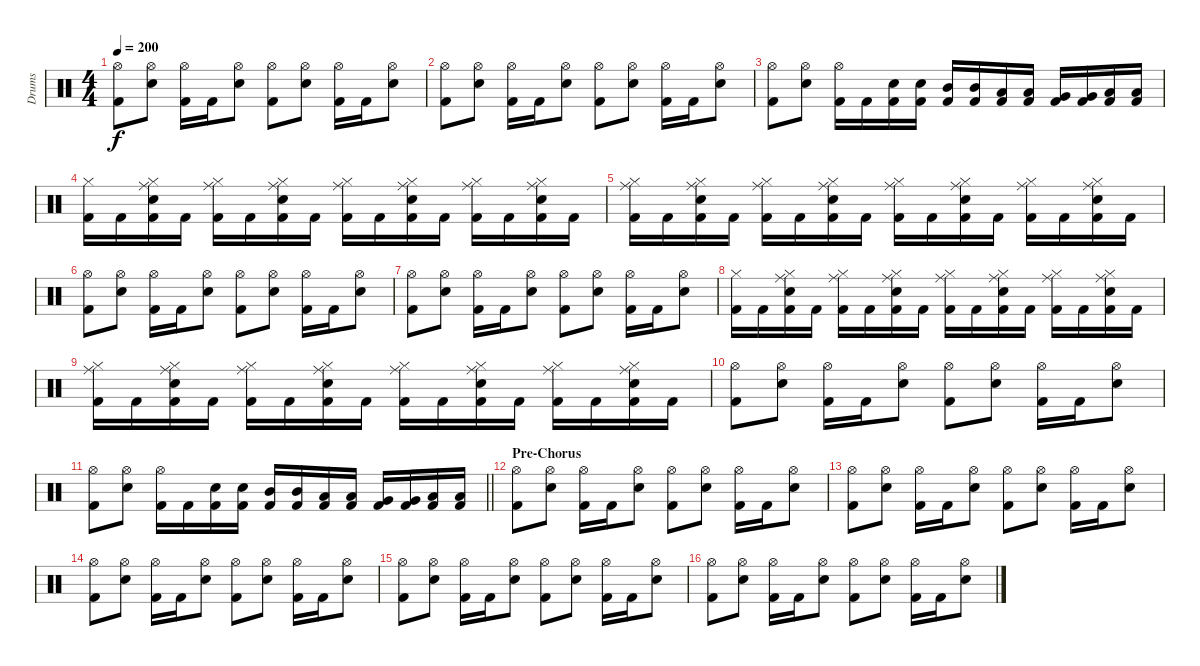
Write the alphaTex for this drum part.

\track ("Drums" "Drums") {instrument percussion}
\staff {score}
\articulation defaults
\ts (4 4)
\tempo 200
\clef neutral
\ks c
("Hi-Hat (open)" "Kick (hit) 2").8{dy f} ("Hi-Hat (open)" "Snare (hit) 2").8 ("Hi-Hat (open)" "Kick (hit) 2").16 "Kick (hit) 2".16 ("Hi-Hat (open)" "Snare (hit) 2").8 ("Hi-Hat (open)" "Kick (hit) 2").8 ("Hi-Hat (open)" "Snare (hit) 2").8 ("Hi-Hat (open)" "Kick (hit) 2").16 "Kick (hit) 2".16 ("Hi-Hat (open)" "Snare (hit) 2").8 |
("Hi-Hat (open)" "Kick (hit) 2").8 ("Hi-Hat (open)" "Snare (hit) 2").8 ("Hi-Hat (open)" "Kick (hit) 2").16 "Kick (hit) 2".16 ("Hi-Hat (open)" "Snare (hit) 2").8 ("Hi-Hat (open)" "Kick (hit) 2").8 ("Hi-Hat (open)" "Snare (hit) 2").8 ("Hi-Hat (open)" "Kick (hit) 2").16 "Kick (hit) 2".16 ("Hi-Hat (open)" "Snare (hit) 2").8 |
("Hi-Hat (open)" "Kick (hit) 2").8 ("Hi-Hat (open)" "Snare (hit) 2").8 ("Hi-Hat (open)" "Kick (hit) 2").16 "Kick (hit) 2".16 ("Snare (hit) 2" "Kick (hit) 2").16 ("Snare (hit) 2" "Kick (hit) 2").16 ("Mid Tom (hit)" "Kick (hit) 2").16 ("Mid Tom (hit)" "Kick (hit) 2").16 ("Low Tom (hit)" "Kick (hit) 2").16 ("Low Tom (hit)" "Kick (hit) 2").16 ("Very Low Tom (hit)" "Kick (hit) 2").16 ("Very Low Tom (hit)" "Kick (hit) 2").16 ("Low Floor Tom (hit)" "Kick (hit) 2").16 ("Low Floor Tom (hit)" "Kick (hit) 2").16 |
("Hi-Hat (closed)" "Kick (hit) 2").16 "Kick (hit) 2".16 ("Hi-Hat (closed)" "Ride (middle)" "Snare (hit) 2" "Kick (hit) 2").16 "Kick (hit) 2".16 ("Hi-Hat (closed)" "Ride (middle)" "Kick (hit) 2").16 "Kick (hit) 2".16 ("Hi-Hat (closed)" "Ride (middle)" "Snare (hit) 2" "Kick (hit) 2").16 "Kick (hit) 2".16 ("Hi-Hat (closed)" "Ride (middle)" "Kick (hit) 2").16 "Kick (hit) 2".16 ("Hi-Hat (closed)" "Ride (middle)" "Snare (hit) 2" "Kick (hit) 2").16 "Kick (hit) 2".16 ("Hi-Hat (closed)" "Ride (middle)" "Kick (hit) 2").16 "Kick (hit) 2".16 ("Hi-Hat (closed)" "Ride (middle)" "Snare (hit) 2" "Kick (hit) 2").16 "Kick (hit) 2".16 |
("Hi-Hat (closed)" "Ride (middle)" "Kick (hit) 2").16 "Kick (hit) 2".16 ("Hi-Hat (closed)" "Ride (middle)" "Snare (hit) 2" "Kick (hit) 2").16 "Kick (hit) 2".16 ("Hi-Hat (closed)" "Ride (middle)" "Kick (hit) 2").16 "Kick (hit) 2".16 ("Hi-Hat (closed)" "Ride (middle)" "Snare (hit) 2" "Kick (hit) 2").16 "Kick (hit) 2".16 ("Hi-Hat (closed)" "Ride (middle)" "Kick (hit) 2").16 "Kick (hit) 2".16 ("Hi-Hat (closed)" "Ride (middle)" "Snare (hit) 2" "Kick (hit) 2").16 "Kick (hit) 2".16 ("Hi-Hat (closed)" "Ride (middle)" "Kick (hit) 2").16 "Kick (hit) 2".16 ("Hi-Hat (closed)" "Ride (middle)" "Snare (hit) 2" "Kick (hit) 2").16 "Kick (hit) 2".16 |
("Hi-Hat (open)" "Kick (hit) 2").8 ("Hi-Hat (open)" "Snare (hit) 2").8 ("Hi-Hat (open)" "Kick (hit) 2").16 "Kick (hit) 2".16 ("Hi-Hat (open)" "Snare (hit) 2").8 ("Hi-Hat (open)" "Kick (hit) 2").8 ("Hi-Hat (open)" "Snare (hit) 2").8 ("Hi-Hat (open)" "Kick (hit) 2").16 "Kick (hit) 2".16 ("Hi-Hat (open)" "Snare (hit) 2").8 |
("Hi-Hat (open)" "Kick (hit) 2").8 ("Hi-Hat (open)" "Snare (hit) 2").8 ("Hi-Hat (open)" "Kick (hit) 2").16 "Kick (hit) 2".16 ("Hi-Hat (open)" "Snare (hit) 2").8 ("Hi-Hat (open)" "Kick (hit) 2").8 ("Hi-Hat (open)" "Snare (hit) 2").8 ("Hi-Hat (open)" "Kick (hit) 2").16 "Kick (hit) 2".16 ("Hi-Hat (open)" "Snare (hit) 2").8 |
("Hi-Hat (closed)" "Kick (hit) 2").16 "Kick (hit) 2".16 ("Hi-Hat (closed)" "Ride (middle)" "Snare (hit) 2" "Kick (hit) 2").16 "Kick (hit) 2".16 ("Hi-Hat (closed)" "Ride (middle)" "Kick (hit) 2").16 "Kick (hit) 2".16 ("Hi-Hat (closed)" "Ride (middle)" "Snare (hit) 2" "Kick (hit) 2").16 "Kick (hit) 2".16 ("Hi-Hat (closed)" "Ride (middle)" "Kick (hit) 2").16 "Kick (hit) 2".16 ("Hi-Hat (closed)" "Ride (middle)" "Snare (hit) 2" "Kick (hit) 2").16 "Kick (hit) 2".16 ("Hi-Hat (closed)" "Ride (middle)" "Kick (hit) 2").16 "Kick (hit) 2".16 ("Hi-Hat (closed)" "Ride (middle)" "Snare (hit) 2" "Kick (hit) 2").16 "Kick (hit) 2".16 |
("Hi-Hat (closed)" "Ride (middle)" "Kick (hit) 2").16 "Kick (hit) 2".16 ("Hi-Hat (closed)" "Ride (middle)" "Snare (hit) 2" "Kick (hit) 2").16 "Kick (hit) 2".16 ("Hi-Hat (closed)" "Ride (middle)" "Kick (hit) 2").16 "Kick (hit) 2".16 ("Hi-Hat (closed)" "Ride (middle)" "Snare (hit) 2" "Kick (hit) 2").16 "Kick (hit) 2".16 ("Hi-Hat (closed)" "Ride (middle)" "Kick (hit) 2").16 "Kick (hit) 2".16 ("Hi-Hat (closed)" "Ride (middle)" "Snare (hit) 2" "Kick (hit) 2").16 "Kick (hit) 2".16 ("Hi-Hat (closed)" "Ride (middle)" "Kick (hit) 2").16 "Kick (hit) 2".16 ("Hi-Hat (closed)" "Ride (middle)" "Snare (hit) 2" "Kick (hit) 2").16 "Kick (hit) 2".16 |
("Hi-Hat (open)" "Kick (hit) 2").8 ("Hi-Hat (open)" "Snare (hit) 2").8 ("Hi-Hat (open)" "Kick (hit) 2").16 "Kick (hit) 2".16 ("Hi-Hat (open)" "Snare (hit) 2").8 ("Hi-Hat (open)" "Kick (hit) 2").8 ("Hi-Hat (open)" "Snare (hit) 2").8 ("Hi-Hat (open)" "Kick (hit) 2").16 "Kick (hit) 2".16 ("Hi-Hat (open)" "Snare (hit) 2").8 |
\barLineRight lightlight
("Hi-Hat (open)" "Kick (hit) 2").8 ("Hi-Hat (open)" "Snare (hit) 2").8 ("Hi-Hat (open)" "Kick (hit) 2").16 "Kick (hit) 2".16 ("Snare (hit) 2" "Kick (hit) 2").16 ("Snare (hit) 2" "Kick (hit) 2").16 ("Mid Tom (hit)" "Kick (hit) 2").16 ("Mid Tom (hit)" "Kick (hit) 2").16 ("Low Tom (hit)" "Kick (hit) 2").16 ("Low Tom (hit)" "Kick (hit) 2").16 ("Very Low Tom (hit)" "Kick (hit) 2").16 ("Very Low Tom (hit)" "Kick (hit) 2").16 ("Low Floor Tom (hit)" "Kick (hit) 2").16 ("Low Floor Tom (hit)" "Kick (hit) 2").16 |
\section ("" "Pre-Chorus")
("Hi-Hat (open)" "Kick (hit) 2").8 ("Hi-Hat (open)" "Snare (hit) 2").8 ("Hi-Hat (open)" "Kick (hit) 2").16 "Kick (hit) 2".16 ("Hi-Hat (open)" "Snare (hit) 2").8 ("Hi-Hat (open)" "Kick (hit) 2").8 ("Hi-Hat (open)" "Snare (hit) 2").8 ("Hi-Hat (open)" "Kick (hit) 2").16 "Kick (hit) 2".16 ("Hi-Hat (open)" "Snare (hit) 2").8 |
("Hi-Hat (open)" "Kick (hit) 2").8 ("Hi-Hat (open)" "Snare (hit) 2").8 ("Hi-Hat (open)" "Kick (hit) 2").16 "Kick (hit) 2".16 ("Hi-Hat (open)" "Snare (hit) 2").8 ("Hi-Hat (open)" "Kick (hit) 2").8 ("Hi-Hat (open)" "Snare (hit) 2").8 ("Hi-Hat (open)" "Kick (hit) 2").16 "Kick (hit) 2".16 ("Hi-Hat (open)" "Snare (hit) 2").8 |
("Hi-Hat (open)" "Kick (hit) 2").8 ("Hi-Hat (open)" "Snare (hit) 2").8 ("Hi-Hat (open)" "Kick (hit) 2").16 "Kick (hit) 2".16 ("Hi-Hat (open)" "Snare (hit) 2").8 ("Hi-Hat (open)" "Kick (hit) 2").8 ("Hi-Hat (open)" "Snare (hit) 2").8 ("Hi-Hat (open)" "Kick (hit) 2").16 "Kick (hit) 2".16 ("Hi-Hat (open)" "Snare (hit) 2").8 |
("Hi-Hat (open)" "Kick (hit) 2").8 ("Hi-Hat (open)" "Snare (hit) 2").8 ("Hi-Hat (open)" "Kick (hit) 2").16 "Kick (hit) 2".16 ("Hi-Hat (open)" "Snare (hit) 2").8 ("Hi-Hat (open)" "Kick (hit) 2").8 ("Hi-Hat (open)" "Snare (hit) 2").8 ("Hi-Hat (open)" "Kick (hit) 2").16 "Kick (hit) 2".16 ("Hi-Hat (open)" "Snare (hit) 2").8 |
("Hi-Hat (open)" "Kick (hit) 2").8 ("Hi-Hat (open)" "Snare (hit) 2").8 ("Hi-Hat (open)" "Kick (hit) 2").16 "Kick (hit) 2".16 ("Hi-Hat (open)" "Snare (hit) 2").8 ("Hi-Hat (open)" "Kick (hit) 2").8 ("Hi-Hat (open)" "Snare (hit) 2").8 ("Hi-Hat (open)" "Kick (hit) 2").16 "Kick (hit) 2".16 ("Hi-Hat (open)" "Snare (hit) 2").8
